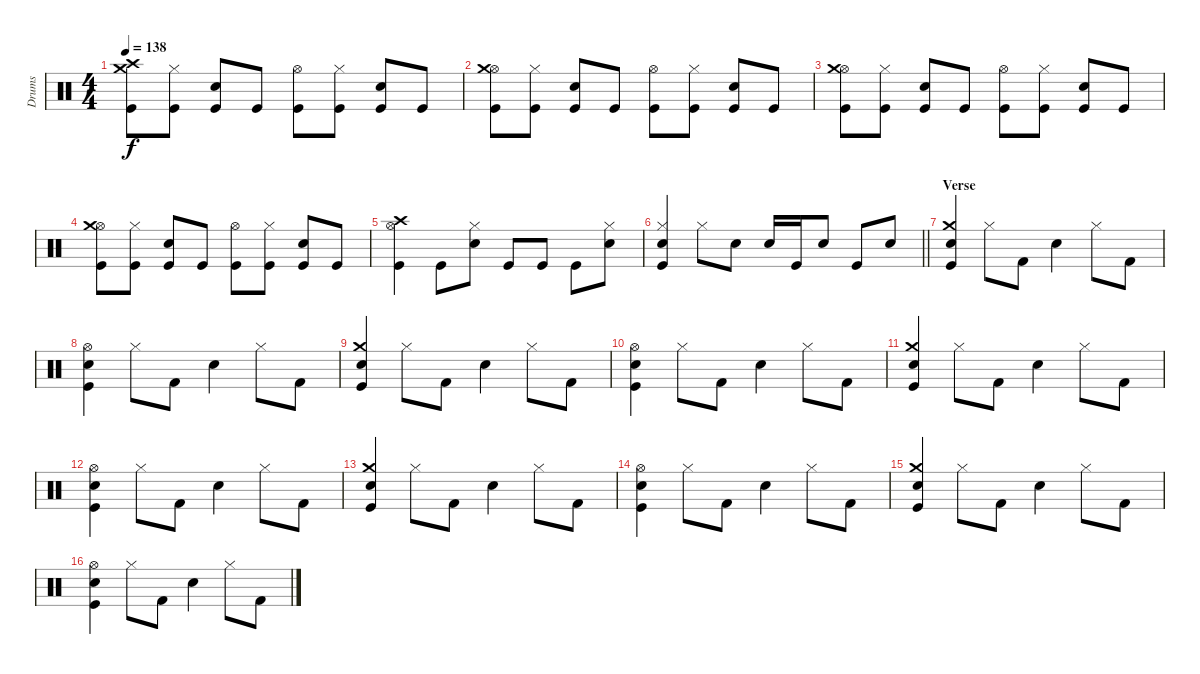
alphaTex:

\track ("Drums" "Drums") {instrument percussion}
\staff {score}
\articulation defaults
\ts (4 4)
\tempo 138
\clef neutral
\ks c
("Kick (hit)" "Crash high (hit)" "Crash medium (hit)").8{dy f} ("Hi-Hat (closed)" "Kick (hit)").8 ("Electric Snare (hit)" "Kick (hit)").8 "Kick (hit)".8 ("Hi-Hat (open)" "Kick (hit)").8 ("Hi-Hat (closed)" "Kick (hit)").8 ("Electric Snare (hit)" "Kick (hit)").8 "Kick (hit)".8 |
("Kick (hit)" "Hi-Hat (open)" "Crash medium (hit)").8 ("Hi-Hat (closed)" "Kick (hit)").8 ("Electric Snare (hit)" "Kick (hit)").8 "Kick (hit)".8 ("Hi-Hat (open)" "Kick (hit)").8 ("Hi-Hat (closed)" "Kick (hit)").8 ("Electric Snare (hit)" "Kick (hit)").8 "Kick (hit)".8 |
("Kick (hit)" "Hi-Hat (open)" "Crash medium (hit)").8 ("Hi-Hat (closed)" "Kick (hit)").8 ("Electric Snare (hit)" "Kick (hit)").8 "Kick (hit)".8 ("Hi-Hat (open)" "Kick (hit)").8 ("Hi-Hat (closed)" "Kick (hit)").8 ("Electric Snare (hit)" "Kick (hit)").8 "Kick (hit)".8 |
("Kick (hit)" "Hi-Hat (open)" "Crash medium (hit)").8 ("Hi-Hat (closed)" "Kick (hit)").8 ("Electric Snare (hit)" "Kick (hit)").8 "Kick (hit)".8 ("Hi-Hat (open)" "Kick (hit)").8 ("Hi-Hat (closed)" "Kick (hit)").8 ("Electric Snare (hit)" "Kick (hit)").8 "Kick (hit)".8 |
("Crash high (hit)" "Hi-Hat (open)" "Kick (hit)").4 "Kick (hit)".8 ("Electric Snare (hit)" "Hi-Hat (closed)").8 "Kick (hit)".8 "Kick (hit)".8 "Kick (hit)".8 ("Electric Snare (hit)" "Hi-Hat (closed)").8 |
\barLineRight lightlight
("Electric Snare (hit)" "Kick (hit)" "Hi-Hat (closed)").4 "Hi-Hat (closed)".8 "Electric Snare (hit)".8 "Electric Snare (hit)".16 "Kick (hit)".16 "Electric Snare (hit)".8 "Kick (hit)".8 "Electric Snare (hit)".8 |
\section ("" "Verse")
("Crash medium (hit)" "Electric Snare (hit)" "Kick (hit)").4{volume 10} "Hi-Hat (closed)".8 "Kick (hit) 2".8 "Electric Snare (hit)".4 "Hi-Hat (closed)".8 "Kick (hit) 2".8 |
("Hi-Hat (open)" "Electric Snare (hit)" "Kick (hit)").4 "Hi-Hat (closed)".8 "Kick (hit) 2".8 "Electric Snare (hit)".4 "Hi-Hat (closed)".8 "Kick (hit) 2".8 |
("Crash medium (hit)" "Electric Snare (hit)" "Kick (hit)").4 "Hi-Hat (closed)".8 "Kick (hit) 2".8 "Electric Snare (hit)".4 "Hi-Hat (closed)".8 "Kick (hit) 2".8 |
("Hi-Hat (open)" "Electric Snare (hit)" "Kick (hit)").4 "Hi-Hat (closed)".8 "Kick (hit) 2".8 "Electric Snare (hit)".4 "Hi-Hat (closed)".8 "Kick (hit) 2".8 |
("Crash medium (hit)" "Electric Snare (hit)" "Kick (hit)").4 "Hi-Hat (closed)".8 "Kick (hit) 2".8 "Electric Snare (hit)".4 "Hi-Hat (closed)".8 "Kick (hit) 2".8 |
("Hi-Hat (open)" "Electric Snare (hit)" "Kick (hit)").4 "Hi-Hat (closed)".8 "Kick (hit) 2".8 "Electric Snare (hit)".4 "Hi-Hat (closed)".8 "Kick (hit) 2".8 |
("Crash medium (hit)" "Electric Snare (hit)" "Kick (hit)").4 "Hi-Hat (closed)".8 "Kick (hit) 2".8 "Electric Snare (hit)".4 "Hi-Hat (closed)".8 "Kick (hit) 2".8 |
("Hi-Hat (open)" "Electric Snare (hit)" "Kick (hit)").4 "Hi-Hat (closed)".8 "Kick (hit) 2".8 "Electric Snare (hit)".4 "Hi-Hat (closed)".8 "Kick (hit) 2".8 |
("Crash medium (hit)" "Electric Snare (hit)" "Kick (hit)").4 "Hi-Hat (closed)".8 "Kick (hit) 2".8 "Electric Snare (hit)".4 "Hi-Hat (closed)".8 "Kick (hit) 2".8 |
("Hi-Hat (open)" "Electric Snare (hit)" "Kick (hit)").4 "Hi-Hat (closed)".8 "Kick (hit) 2".8 "Electric Snare (hit)".4 "Hi-Hat (closed)".8 "Kick (hit) 2".8
